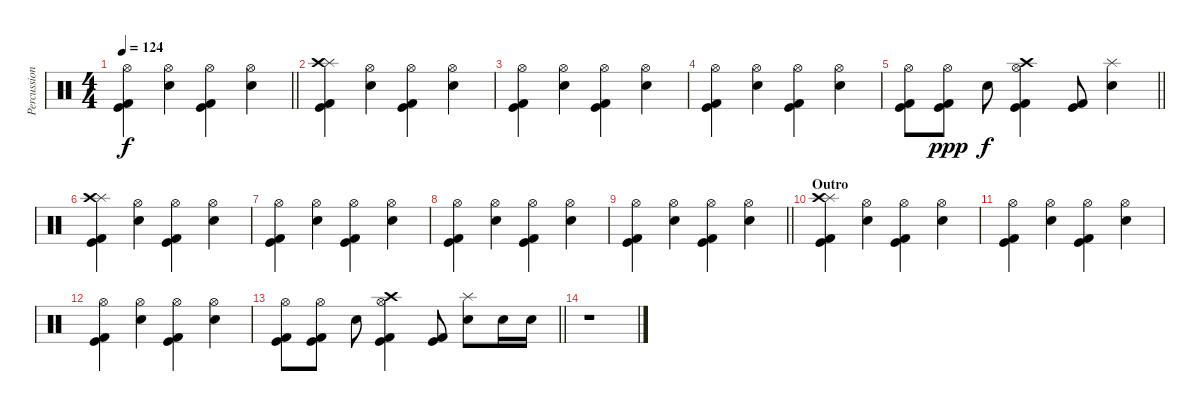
\track ("Percussion" "Percussion") {instrument percussion}
\staff {score}
\articulation defaults
\ts (4 4)
\tempo 124
\clef neutral
\barLineRight lightlight
\ks c
("Hi-Hat (open)" "Kick (hit)" "Kick (hit) 2").4{dy f} ("Hi-Hat (open)" "Snare (hit) 2").4 ("Hi-Hat (open)" "Kick (hit)" "Kick (hit) 2").4 ("Hi-Hat (open)" "Snare (hit) 2").4 |
("Splash (hit)" "Crash high (hit)" "Kick (hit)" "Kick (hit) 2").4 ("Hi-Hat (open)" "Snare (hit) 2").4 ("Hi-Hat (open)" "Kick (hit)" "Kick (hit) 2").4 ("Hi-Hat (open)" "Snare (hit) 2").4 |
("Hi-Hat (open)" "Kick (hit)" "Kick (hit) 2").4 ("Hi-Hat (open)" "Snare (hit) 2").4 ("Hi-Hat (open)" "Kick (hit)" "Kick (hit) 2").4 ("Hi-Hat (open)" "Snare (hit) 2").4 |
("Hi-Hat (open)" "Kick (hit)" "Kick (hit) 2").4 ("Hi-Hat (open)" "Snare (hit) 2").4 ("Hi-Hat (open)" "Kick (hit)" "Kick (hit) 2").4 ("Hi-Hat (open)" "Snare (hit) 2").4 |
\barLineRight lightlight
("Hi-Hat (open)" "Kick (hit)" "Kick (hit) 2").8 ("Hi-Hat (open)" "Kick (hit) 2" "Kick (hit)").8{dy ppp} "Snare (hit) 2".8{dy f} ("Crash high (hit)" "Hi-Hat (open)" "Kick (hit)" "Kick (hit) 2").4 ("Kick (hit)" "Kick (hit) 2").8 ("Splash (hit)" "Snare (hit) 2").4 |
("Splash (hit)" "Crash high (hit)" "Kick (hit)" "Kick (hit) 2").4 ("Hi-Hat (open)" "Snare (hit) 2").4 ("Hi-Hat (open)" "Kick (hit)" "Kick (hit) 2").4 ("Hi-Hat (open)" "Snare (hit) 2").4 |
("Hi-Hat (open)" "Kick (hit)" "Kick (hit) 2").4 ("Hi-Hat (open)" "Snare (hit) 2").4 ("Hi-Hat (open)" "Kick (hit)" "Kick (hit) 2").4 ("Hi-Hat (open)" "Snare (hit) 2").4 |
("Hi-Hat (open)" "Kick (hit)" "Kick (hit) 2").4 ("Hi-Hat (open)" "Snare (hit) 2").4 ("Hi-Hat (open)" "Kick (hit)" "Kick (hit) 2").4 ("Hi-Hat (open)" "Snare (hit) 2").4 |
\barLineRight lightlight
("Hi-Hat (open)" "Kick (hit)" "Kick (hit) 2").4 ("Hi-Hat (open)" "Snare (hit) 2").4 ("Hi-Hat (open)" "Kick (hit)" "Kick (hit) 2").4 ("Hi-Hat (open)" "Snare (hit) 2").4 |
\section ("" "Outro")
("Splash (hit)" "Crash high (hit)" "Kick (hit)" "Kick (hit) 2").4 ("Hi-Hat (open)" "Snare (hit) 2").4 ("Hi-Hat (open)" "Kick (hit)" "Kick (hit) 2").4 ("Hi-Hat (open)" "Snare (hit) 2").4 |
("Hi-Hat (open)" "Kick (hit)" "Kick (hit) 2").4 ("Hi-Hat (open)" "Snare (hit) 2").4 ("Hi-Hat (open)" "Kick (hit)" "Kick (hit) 2").4 ("Hi-Hat (open)" "Snare (hit) 2").4 |
("Hi-Hat (open)" "Kick (hit)" "Kick (hit) 2").4 ("Hi-Hat (open)" "Snare (hit) 2").4 ("Hi-Hat (open)" "Kick (hit)" "Kick (hit) 2").4 ("Hi-Hat (open)" "Snare (hit) 2").4 |
\barLineRight lightlight
("Hi-Hat (open)" "Kick (hit)" "Kick (hit) 2").8 ("Hi-Hat (open)" "Kick (hit) 2" "Kick (hit)").8 "Snare (hit) 2".8 ("Crash high (hit)" "Hi-Hat (open)" "Kick (hit)" "Kick (hit) 2").4 ("Kick (hit)" "Kick (hit) 2").8 ("Splash (hit)" "Snare (hit) 2").8 "Electric Snare (hit)".16 "Electric Snare (hit)".16 |
r.1
